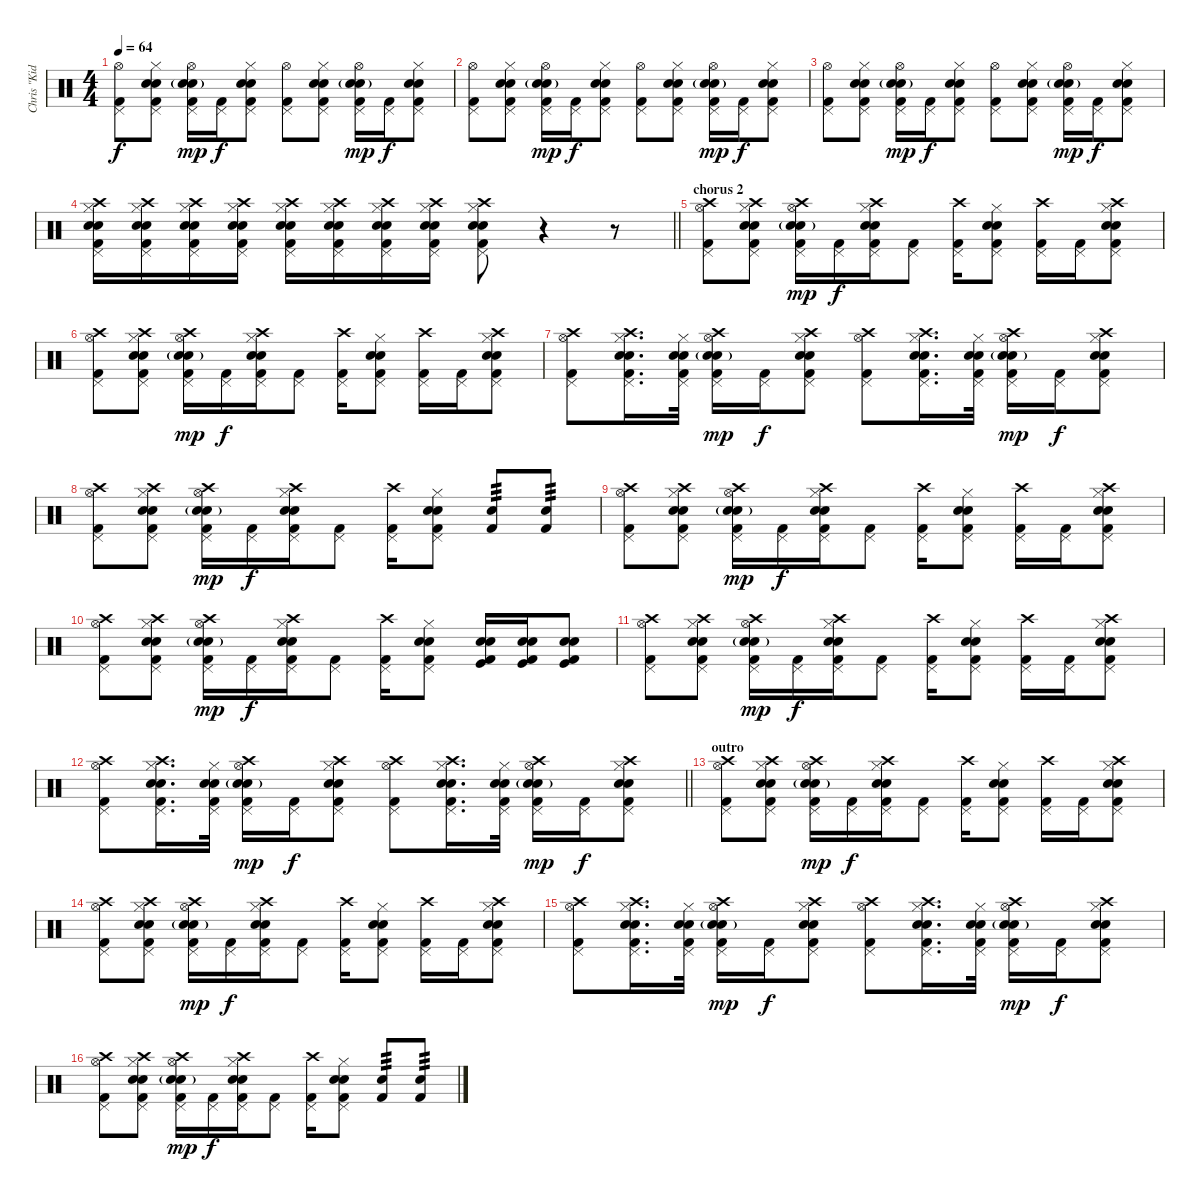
\track ("Chris \"Kid\" Knapp" "Chris \"Kid") {instrument percussion}
\staff {score}
\articulation defaults
\ts (4 4)
\tempo 64
\clef neutral
\ks c
("Hi-Hat (open)" "Kick (hit) 2" "Pedal Hi-Hat (hit)").8{dy f} ("Snare (hit) 2" "Snare (hit) 2" "Hi-Hat (closed)" "Kick (hit) 2" "Pedal Hi-Hat (hit)").8 ("Snare (hit) 2"{g} "Snare (hit) 2"{g} "Hi-Hat (open)" "Kick (hit) 2" "Pedal Hi-Hat (hit)").16{dy mp} ("Kick (hit) 2" "Pedal Hi-Hat (hit)").16{dy f} ("Snare (hit) 2" "Snare (hit) 2" "Hi-Hat (closed)" "Kick (hit) 2" "Pedal Hi-Hat (hit)").8 ("Hi-Hat (open)" "Kick (hit) 2" "Pedal Hi-Hat (hit)").8 ("Snare (hit) 2" "Snare (hit) 2" "Hi-Hat (closed)" "Kick (hit) 2" "Pedal Hi-Hat (hit)").8 ("Snare (hit) 2"{g} "Snare (hit) 2"{g} "Hi-Hat (open)" "Kick (hit) 2" "Pedal Hi-Hat (hit)").16{dy mp} ("Kick (hit) 2" "Pedal Hi-Hat (hit)").16{dy f} ("Snare (hit) 2" "Snare (hit) 2" "Hi-Hat (closed)" "Kick (hit) 2" "Pedal Hi-Hat (hit)").8 |
("Hi-Hat (open)" "Kick (hit) 2" "Pedal Hi-Hat (hit)").8 ("Snare (hit) 2" "Snare (hit) 2" "Hi-Hat (closed)" "Kick (hit) 2" "Pedal Hi-Hat (hit)").8 ("Snare (hit) 2"{g} "Snare (hit) 2"{g} "Hi-Hat (open)" "Kick (hit) 2" "Pedal Hi-Hat (hit)").16{dy mp} ("Kick (hit) 2" "Pedal Hi-Hat (hit)").16{dy f} ("Snare (hit) 2" "Snare (hit) 2" "Hi-Hat (closed)" "Kick (hit) 2" "Pedal Hi-Hat (hit)").8 ("Hi-Hat (open)" "Kick (hit) 2" "Pedal Hi-Hat (hit)").8 ("Snare (hit) 2" "Snare (hit) 2" "Hi-Hat (closed)" "Kick (hit) 2" "Pedal Hi-Hat (hit)").8 ("Snare (hit) 2"{g} "Snare (hit) 2"{g} "Hi-Hat (open)" "Kick (hit) 2" "Pedal Hi-Hat (hit)").16{dy mp} ("Kick (hit) 2" "Pedal Hi-Hat (hit)").16{dy f} ("Snare (hit) 2" "Snare (hit) 2" "Hi-Hat (closed)" "Kick (hit) 2" "Pedal Hi-Hat (hit)").8 |
("Hi-Hat (open)" "Kick (hit) 2" "Pedal Hi-Hat (hit)").8 ("Snare (hit) 2" "Snare (hit) 2" "Hi-Hat (closed)" "Kick (hit) 2" "Pedal Hi-Hat (hit)").8 ("Snare (hit) 2"{g} "Snare (hit) 2"{g} "Hi-Hat (open)" "Kick (hit) 2" "Pedal Hi-Hat (hit)").16{dy mp} ("Kick (hit) 2" "Pedal Hi-Hat (hit)").16{dy f} ("Snare (hit) 2" "Snare (hit) 2" "Hi-Hat (closed)" "Kick (hit) 2" "Pedal Hi-Hat (hit)").8 ("Hi-Hat (open)" "Kick (hit) 2" "Pedal Hi-Hat (hit)").8 ("Snare (hit) 2" "Snare (hit) 2" "Hi-Hat (closed)" "Kick (hit) 2" "Pedal Hi-Hat (hit)").8 ("Snare (hit) 2"{g} "Snare (hit) 2"{g} "Hi-Hat (open)" "Kick (hit) 2" "Pedal Hi-Hat (hit)").16{dy mp} ("Kick (hit) 2" "Pedal Hi-Hat (hit)").16{dy f} ("Snare (hit) 2" "Snare (hit) 2" "Hi-Hat (closed)" "Kick (hit) 2" "Pedal Hi-Hat (hit)").8 |
\barLineRight lightlight
("Snare (hit) 2" "Snare (hit) 2" "Hi-Hat (closed)" "Kick (hit) 2" "Pedal Hi-Hat (hit)" "Crash high (hit)").16 ("Snare (hit) 2" "Snare (hit) 2" "Hi-Hat (closed)" "Kick (hit) 2" "Pedal Hi-Hat (hit)" "Crash high (hit)").16 ("Snare (hit) 2" "Snare (hit) 2" "Hi-Hat (closed)" "Kick (hit) 2" "Pedal Hi-Hat (hit)" "Crash high (hit)").16 ("Snare (hit) 2" "Snare (hit) 2" "Hi-Hat (closed)" "Kick (hit) 2" "Pedal Hi-Hat (hit)" "Crash high (hit)").16 ("Snare (hit) 2" "Snare (hit) 2" "Hi-Hat (closed)" "Kick (hit) 2" "Pedal Hi-Hat (hit)" "Crash high (hit)").16 ("Snare (hit) 2" "Snare (hit) 2" "Hi-Hat (closed)" "Kick (hit) 2" "Pedal Hi-Hat (hit)" "Crash high (hit)").16 ("Snare (hit) 2" "Snare (hit) 2" "Hi-Hat (closed)" "Kick (hit) 2" "Pedal Hi-Hat (hit)" "Crash high (hit)").16 ("Snare (hit) 2" "Snare (hit) 2" "Hi-Hat (closed)" "Kick (hit) 2" "Pedal Hi-Hat (hit)" "Crash high (hit)").16 ("Snare (hit) 2" "Snare (hit) 2" "Hi-Hat (closed)" "Kick (hit) 2" "Pedal Hi-Hat (hit)" "Crash high (hit)").8 r.4 r.8 |
\section ("" "chorus 2")
("Hi-Hat (open)" "Kick (hit) 2" "Pedal Hi-Hat (hit)" "Crash high (hit)").8 ("Snare (hit) 2" "Snare (hit) 2" "Hi-Hat (closed)" "Kick (hit) 2" "Pedal Hi-Hat (hit)" "Crash high (hit)").8 ("Snare (hit) 2"{g} "Snare (hit) 2"{g} "Hi-Hat (open)" "Kick (hit) 2" "Pedal Hi-Hat (hit)" "Crash high (hit)").16{dy mp} ("Kick (hit) 2" "Pedal Hi-Hat (hit)").16{dy f} ("Snare (hit) 2" "Snare (hit) 2" "Hi-Hat (closed)" "Kick (hit) 2" "Pedal Hi-Hat (hit)" "Crash high (hit)").16 ("Kick (hit) 2" "Pedal Hi-Hat (hit)").8 ("Kick (hit) 2" "Pedal Hi-Hat (hit)" "Crash high (hit)").16 ("Snare (hit) 2" "Snare (hit) 2" "Hi-Hat (closed)" "Kick (hit) 2" "Pedal Hi-Hat (hit)").8 ("Kick (hit) 2" "Pedal Hi-Hat (hit)" "Crash high (hit)").16 ("Kick (hit) 2" "Pedal Hi-Hat (hit)").16 ("Snare (hit) 2" "Snare (hit) 2" "Hi-Hat (closed)" "Kick (hit) 2" "Pedal Hi-Hat (hit)" "Crash high (hit)").8 |
("Hi-Hat (open)" "Kick (hit) 2" "Pedal Hi-Hat (hit)" "Crash high (hit)").8 ("Snare (hit) 2" "Snare (hit) 2" "Hi-Hat (closed)" "Kick (hit) 2" "Pedal Hi-Hat (hit)" "Crash high (hit)").8 ("Snare (hit) 2"{g} "Snare (hit) 2"{g} "Hi-Hat (open)" "Kick (hit) 2" "Pedal Hi-Hat (hit)" "Crash high (hit)").16{dy mp} ("Kick (hit) 2" "Pedal Hi-Hat (hit)").16{dy f} ("Snare (hit) 2" "Snare (hit) 2" "Hi-Hat (closed)" "Kick (hit) 2" "Pedal Hi-Hat (hit)" "Crash high (hit)").16 ("Kick (hit) 2" "Pedal Hi-Hat (hit)").8 ("Kick (hit) 2" "Pedal Hi-Hat (hit)" "Crash high (hit)").16 ("Snare (hit) 2" "Snare (hit) 2" "Hi-Hat (closed)" "Kick (hit) 2" "Pedal Hi-Hat (hit)").8 ("Kick (hit) 2" "Pedal Hi-Hat (hit)" "Crash high (hit)").16 ("Kick (hit) 2" "Pedal Hi-Hat (hit)").16 ("Snare (hit) 2" "Snare (hit) 2" "Hi-Hat (closed)" "Kick (hit) 2" "Pedal Hi-Hat (hit)" "Crash high (hit)").8 |
("Hi-Hat (open)" "Kick (hit) 2" "Pedal Hi-Hat (hit)" "Crash high (hit)").8 ("Snare (hit) 2" "Snare (hit) 2" "Hi-Hat (closed)" "Kick (hit) 2" "Pedal Hi-Hat (hit)" "Crash high (hit)").16{d} ("Snare (hit) 2" "Snare (hit) 2" "Hi-Hat (closed)" "Kick (hit) 2" "Pedal Hi-Hat (hit)").32 ("Snare (hit) 2"{g} "Snare (hit) 2"{g} "Hi-Hat (open)" "Kick (hit) 2" "Pedal Hi-Hat (hit)" "Crash high (hit)").16{dy mp} ("Kick (hit) 2" "Pedal Hi-Hat (hit)").16{dy f} ("Snare (hit) 2" "Snare (hit) 2" "Hi-Hat (closed)" "Kick (hit) 2" "Pedal Hi-Hat (hit)" "Crash high (hit)").8 ("Hi-Hat (open)" "Kick (hit) 2" "Pedal Hi-Hat (hit)" "Crash high (hit)").8 ("Snare (hit) 2" "Snare (hit) 2" "Hi-Hat (closed)" "Kick (hit) 2" "Pedal Hi-Hat (hit)" "Crash high (hit)").16{d} ("Snare (hit) 2" "Snare (hit) 2" "Hi-Hat (closed)" "Kick (hit) 2" "Pedal Hi-Hat (hit)").32 ("Snare (hit) 2"{g} "Snare (hit) 2"{g} "Hi-Hat (open)" "Kick (hit) 2" "Pedal Hi-Hat (hit)" "Crash high (hit)").16{dy mp} ("Kick (hit) 2" "Pedal Hi-Hat (hit)").16{dy f} ("Snare (hit) 2" "Snare (hit) 2" "Hi-Hat (closed)" "Kick (hit) 2" "Pedal Hi-Hat (hit)" "Crash high (hit)").8 |
("Hi-Hat (open)" "Kick (hit) 2" "Pedal Hi-Hat (hit)" "Crash high (hit)").8 ("Snare (hit) 2" "Snare (hit) 2" "Hi-Hat (closed)" "Kick (hit) 2" "Pedal Hi-Hat (hit)" "Crash high (hit)").8 ("Snare (hit) 2"{g} "Snare (hit) 2"{g} "Hi-Hat (open)" "Kick (hit) 2" "Pedal Hi-Hat (hit)" "Crash high (hit)").16{dy mp} ("Kick (hit) 2" "Pedal Hi-Hat (hit)").16{dy f} ("Snare (hit) 2" "Snare (hit) 2" "Hi-Hat (closed)" "Kick (hit) 2" "Pedal Hi-Hat (hit)" "Crash high (hit)").16 ("Kick (hit) 2" "Pedal Hi-Hat (hit)").8 ("Kick (hit) 2" "Pedal Hi-Hat (hit)" "Crash high (hit)").16 ("Snare (hit) 2" "Snare (hit) 2" "Hi-Hat (closed)" "Kick (hit) 2" "Pedal Hi-Hat (hit)").8 ("Snare (hit) 2" "Kick (hit) 2").8{tp 3} ("Snare (hit) 2" "Kick (hit) 2").8{tp 3} |
("Hi-Hat (open)" "Kick (hit) 2" "Pedal Hi-Hat (hit)" "Crash high (hit)").8 ("Snare (hit) 2" "Snare (hit) 2" "Hi-Hat (closed)" "Kick (hit) 2" "Pedal Hi-Hat (hit)" "Crash high (hit)").8 ("Snare (hit) 2"{g} "Snare (hit) 2"{g} "Hi-Hat (open)" "Kick (hit) 2" "Pedal Hi-Hat (hit)" "Crash high (hit)").16{dy mp} ("Kick (hit) 2" "Pedal Hi-Hat (hit)").16{dy f} ("Snare (hit) 2" "Snare (hit) 2" "Hi-Hat (closed)" "Kick (hit) 2" "Pedal Hi-Hat (hit)" "Crash high (hit)").16 ("Kick (hit) 2" "Pedal Hi-Hat (hit)").8 ("Kick (hit) 2" "Pedal Hi-Hat (hit)" "Crash high (hit)").16 ("Snare (hit) 2" "Snare (hit) 2" "Hi-Hat (closed)" "Kick (hit) 2" "Pedal Hi-Hat (hit)").8 ("Kick (hit) 2" "Pedal Hi-Hat (hit)" "Crash high (hit)").16 ("Kick (hit) 2" "Pedal Hi-Hat (hit)").16 ("Snare (hit) 2" "Snare (hit) 2" "Hi-Hat (closed)" "Kick (hit) 2" "Pedal Hi-Hat (hit)" "Crash high (hit)").8 |
("Hi-Hat (open)" "Kick (hit) 2" "Pedal Hi-Hat (hit)" "Crash high (hit)").8 ("Snare (hit) 2" "Snare (hit) 2" "Hi-Hat (closed)" "Kick (hit) 2" "Pedal Hi-Hat (hit)" "Crash high (hit)").8 ("Snare (hit) 2"{g} "Snare (hit) 2"{g} "Hi-Hat (open)" "Kick (hit) 2" "Pedal Hi-Hat (hit)" "Crash high (hit)").16{dy mp} ("Kick (hit) 2" "Pedal Hi-Hat (hit)").16{dy f} ("Snare (hit) 2" "Snare (hit) 2" "Hi-Hat (closed)" "Kick (hit) 2" "Pedal Hi-Hat (hit)" "Crash high (hit)").16 ("Kick (hit) 2" "Pedal Hi-Hat (hit)").8 ("Kick (hit) 2" "Pedal Hi-Hat (hit)" "Crash high (hit)").16 ("Snare (hit) 2" "Snare (hit) 2" "Hi-Hat (closed)" "Kick (hit) 2" "Pedal Hi-Hat (hit)").8 ("Snare (hit) 2" "Snare (hit) 2" "Kick (hit) 2" "Kick (hit)").16 ("Electric Snare (hit)" "Electric Snare (hit)" "Kick (hit) 2" "Kick (hit)").16 ("Snare (hit) 2" "Snare (hit) 2" "Kick (hit) 2" "Kick (hit)").8 |
("Hi-Hat (open)" "Kick (hit) 2" "Pedal Hi-Hat (hit)" "Crash high (hit)").8 ("Snare (hit) 2" "Snare (hit) 2" "Hi-Hat (closed)" "Kick (hit) 2" "Pedal Hi-Hat (hit)" "Crash high (hit)").8 ("Snare (hit) 2"{g} "Snare (hit) 2"{g} "Hi-Hat (open)" "Kick (hit) 2" "Pedal Hi-Hat (hit)" "Crash high (hit)").16{dy mp} ("Kick (hit) 2" "Pedal Hi-Hat (hit)").16{dy f} ("Snare (hit) 2" "Snare (hit) 2" "Hi-Hat (closed)" "Kick (hit) 2" "Pedal Hi-Hat (hit)" "Crash high (hit)").16 ("Kick (hit) 2" "Pedal Hi-Hat (hit)").8 ("Kick (hit) 2" "Pedal Hi-Hat (hit)" "Crash high (hit)").16 ("Snare (hit) 2" "Snare (hit) 2" "Hi-Hat (closed)" "Kick (hit) 2" "Pedal Hi-Hat (hit)").8 ("Kick (hit) 2" "Pedal Hi-Hat (hit)" "Crash high (hit)").16 ("Kick (hit) 2" "Pedal Hi-Hat (hit)").16 ("Snare (hit) 2" "Snare (hit) 2" "Hi-Hat (closed)" "Kick (hit) 2" "Pedal Hi-Hat (hit)" "Crash high (hit)").8 |
\barLineRight lightlight
("Hi-Hat (open)" "Kick (hit) 2" "Pedal Hi-Hat (hit)" "Crash high (hit)").8 ("Snare (hit) 2" "Snare (hit) 2" "Hi-Hat (closed)" "Kick (hit) 2" "Pedal Hi-Hat (hit)" "Crash high (hit)").16{d} ("Snare (hit) 2" "Snare (hit) 2" "Hi-Hat (closed)" "Kick (hit) 2" "Pedal Hi-Hat (hit)").32 ("Snare (hit) 2"{g} "Snare (hit) 2"{g} "Hi-Hat (open)" "Kick (hit) 2" "Pedal Hi-Hat (hit)" "Crash high (hit)").16{dy mp} ("Kick (hit) 2" "Pedal Hi-Hat (hit)").16{dy f} ("Snare (hit) 2" "Snare (hit) 2" "Hi-Hat (closed)" "Kick (hit) 2" "Pedal Hi-Hat (hit)" "Crash high (hit)").8 ("Hi-Hat (open)" "Kick (hit) 2" "Pedal Hi-Hat (hit)" "Crash high (hit)").8 ("Snare (hit) 2" "Snare (hit) 2" "Hi-Hat (closed)" "Kick (hit) 2" "Pedal Hi-Hat (hit)" "Crash high (hit)").16{d} ("Snare (hit) 2" "Snare (hit) 2" "Hi-Hat (closed)" "Kick (hit) 2" "Pedal Hi-Hat (hit)").32 ("Snare (hit) 2"{g} "Snare (hit) 2"{g} "Hi-Hat (open)" "Kick (hit) 2" "Pedal Hi-Hat (hit)" "Crash high (hit)").16{dy mp} ("Kick (hit) 2" "Pedal Hi-Hat (hit)").16{dy f} ("Snare (hit) 2" "Snare (hit) 2" "Hi-Hat (closed)" "Kick (hit) 2" "Pedal Hi-Hat (hit)" "Crash high (hit)").8 |
\section ("" "outro")
("Hi-Hat (open)" "Kick (hit) 2" "Pedal Hi-Hat (hit)" "Crash high (hit)").8 ("Snare (hit) 2" "Snare (hit) 2" "Hi-Hat (closed)" "Kick (hit) 2" "Pedal Hi-Hat (hit)" "Crash high (hit)").8 ("Snare (hit) 2"{g} "Snare (hit) 2"{g} "Hi-Hat (open)" "Kick (hit) 2" "Pedal Hi-Hat (hit)" "Crash high (hit)").16{dy mp} ("Kick (hit) 2" "Pedal Hi-Hat (hit)").16{dy f} ("Snare (hit) 2" "Snare (hit) 2" "Hi-Hat (closed)" "Kick (hit) 2" "Pedal Hi-Hat (hit)" "Crash high (hit)").16 ("Kick (hit) 2" "Pedal Hi-Hat (hit)").8 ("Kick (hit) 2" "Pedal Hi-Hat (hit)" "Crash high (hit)").16 ("Snare (hit) 2" "Snare (hit) 2" "Hi-Hat (closed)" "Kick (hit) 2" "Pedal Hi-Hat (hit)").8 ("Kick (hit) 2" "Pedal Hi-Hat (hit)" "Crash high (hit)").16 ("Kick (hit) 2" "Pedal Hi-Hat (hit)").16 ("Snare (hit) 2" "Snare (hit) 2" "Hi-Hat (closed)" "Kick (hit) 2" "Pedal Hi-Hat (hit)" "Crash high (hit)").8 |
("Hi-Hat (open)" "Kick (hit) 2" "Pedal Hi-Hat (hit)" "Crash high (hit)").8 ("Snare (hit) 2" "Snare (hit) 2" "Hi-Hat (closed)" "Kick (hit) 2" "Pedal Hi-Hat (hit)" "Crash high (hit)").8 ("Snare (hit) 2"{g} "Snare (hit) 2"{g} "Hi-Hat (open)" "Kick (hit) 2" "Pedal Hi-Hat (hit)" "Crash high (hit)").16{dy mp} ("Kick (hit) 2" "Pedal Hi-Hat (hit)").16{dy f} ("Snare (hit) 2" "Snare (hit) 2" "Hi-Hat (closed)" "Kick (hit) 2" "Pedal Hi-Hat (hit)" "Crash high (hit)").16 ("Kick (hit) 2" "Pedal Hi-Hat (hit)").8 ("Kick (hit) 2" "Pedal Hi-Hat (hit)" "Crash high (hit)").16 ("Snare (hit) 2" "Snare (hit) 2" "Hi-Hat (closed)" "Kick (hit) 2" "Pedal Hi-Hat (hit)").8 ("Kick (hit) 2" "Pedal Hi-Hat (hit)" "Crash high (hit)").16 ("Kick (hit) 2" "Pedal Hi-Hat (hit)").16 ("Snare (hit) 2" "Snare (hit) 2" "Hi-Hat (closed)" "Kick (hit) 2" "Pedal Hi-Hat (hit)" "Crash high (hit)").8 |
("Hi-Hat (open)" "Kick (hit) 2" "Pedal Hi-Hat (hit)" "Crash high (hit)").8 ("Snare (hit) 2" "Snare (hit) 2" "Hi-Hat (closed)" "Kick (hit) 2" "Pedal Hi-Hat (hit)" "Crash high (hit)").16{d} ("Snare (hit) 2" "Snare (hit) 2" "Hi-Hat (closed)" "Kick (hit) 2" "Pedal Hi-Hat (hit)").32 ("Snare (hit) 2"{g} "Snare (hit) 2"{g} "Hi-Hat (open)" "Kick (hit) 2" "Pedal Hi-Hat (hit)" "Crash high (hit)").16{dy mp} ("Kick (hit) 2" "Pedal Hi-Hat (hit)").16{dy f} ("Snare (hit) 2" "Snare (hit) 2" "Hi-Hat (closed)" "Kick (hit) 2" "Pedal Hi-Hat (hit)" "Crash high (hit)").8 ("Hi-Hat (open)" "Kick (hit) 2" "Pedal Hi-Hat (hit)" "Crash high (hit)").8 ("Snare (hit) 2" "Snare (hit) 2" "Hi-Hat (closed)" "Kick (hit) 2" "Pedal Hi-Hat (hit)" "Crash high (hit)").16{d} ("Snare (hit) 2" "Snare (hit) 2" "Hi-Hat (closed)" "Kick (hit) 2" "Pedal Hi-Hat (hit)").32 ("Snare (hit) 2"{g} "Snare (hit) 2"{g} "Hi-Hat (open)" "Kick (hit) 2" "Pedal Hi-Hat (hit)" "Crash high (hit)").16{dy mp} ("Kick (hit) 2" "Pedal Hi-Hat (hit)").16{dy f} ("Snare (hit) 2" "Snare (hit) 2" "Hi-Hat (closed)" "Kick (hit) 2" "Pedal Hi-Hat (hit)" "Crash high (hit)").8 |
("Hi-Hat (open)" "Kick (hit) 2" "Pedal Hi-Hat (hit)" "Crash high (hit)").8 ("Snare (hit) 2" "Snare (hit) 2" "Hi-Hat (closed)" "Kick (hit) 2" "Pedal Hi-Hat (hit)" "Crash high (hit)").8 ("Snare (hit) 2"{g} "Snare (hit) 2"{g} "Hi-Hat (open)" "Kick (hit) 2" "Pedal Hi-Hat (hit)" "Crash high (hit)").16{dy mp} ("Kick (hit) 2" "Pedal Hi-Hat (hit)").16{dy f} ("Snare (hit) 2" "Snare (hit) 2" "Hi-Hat (closed)" "Kick (hit) 2" "Pedal Hi-Hat (hit)" "Crash high (hit)").16 ("Kick (hit) 2" "Pedal Hi-Hat (hit)").8 ("Kick (hit) 2" "Pedal Hi-Hat (hit)" "Crash high (hit)").16 ("Snare (hit) 2" "Snare (hit) 2" "Hi-Hat (closed)" "Kick (hit) 2" "Pedal Hi-Hat (hit)").8 ("Snare (hit) 2" "Kick (hit) 2").8{tp 3} ("Snare (hit) 2" "Kick (hit) 2").8{tp 3}
